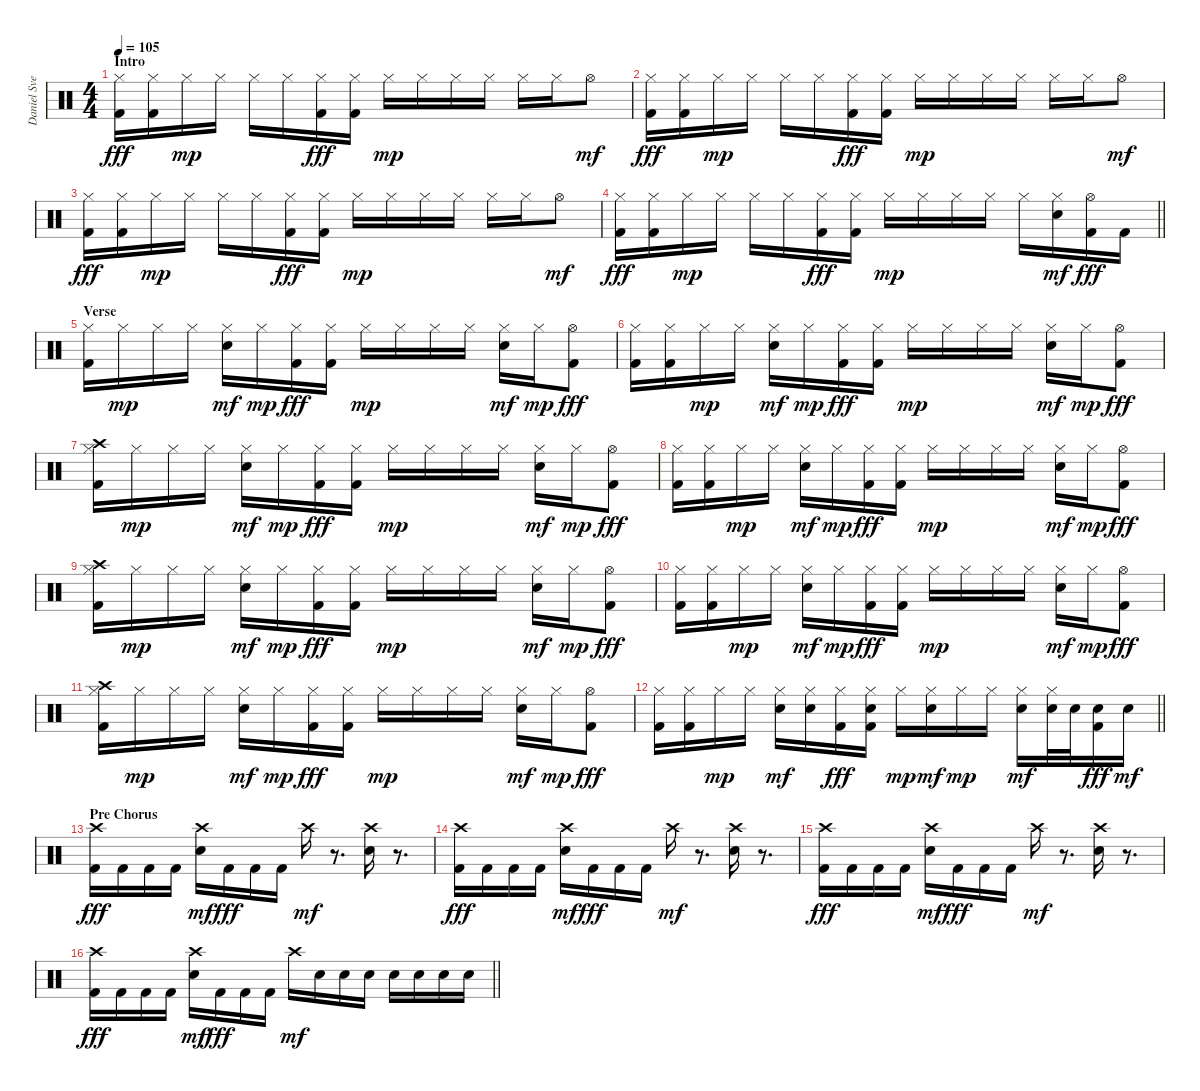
\track ("Daniel Svensson" "Daniel Sve") {instrument percussion}
\staff {score}
\articulation defaults
\ts (4 4)
\section ("" "Intro")
\tempo 105
\clef neutral
\ks c
("Hi-Hat (closed)" "Kick (hit) 2").16{dy fff} ("Hi-Hat (closed)" "Kick (hit) 2").16 "Hi-Hat (closed)".16{dy mp} "Hi-Hat (closed)".16 "Hi-Hat (closed)".16 "Hi-Hat (closed)".16 ("Hi-Hat (closed)" "Kick (hit) 2").16{dy fff} ("Hi-Hat (closed)" "Kick (hit) 2").16 "Hi-Hat (closed)".16{dy mp} "Hi-Hat (closed)".16 "Hi-Hat (closed)".16 "Hi-Hat (closed)".16 "Hi-Hat (closed)".16 "Hi-Hat (closed)".16 "Hi-Hat (open)".8{dy mf} |
("Hi-Hat (closed)" "Kick (hit) 2").16{dy fff} ("Hi-Hat (closed)" "Kick (hit) 2").16 "Hi-Hat (closed)".16{dy mp} "Hi-Hat (closed)".16 "Hi-Hat (closed)".16 "Hi-Hat (closed)".16 ("Hi-Hat (closed)" "Kick (hit) 2").16{dy fff} ("Hi-Hat (closed)" "Kick (hit) 2").16 "Hi-Hat (closed)".16{dy mp} "Hi-Hat (closed)".16 "Hi-Hat (closed)".16 "Hi-Hat (closed)".16 "Hi-Hat (closed)".16 "Hi-Hat (closed)".16 "Hi-Hat (open)".8{dy mf} |
("Hi-Hat (closed)" "Kick (hit) 2").16{dy fff} ("Hi-Hat (closed)" "Kick (hit) 2").16 "Hi-Hat (closed)".16{dy mp} "Hi-Hat (closed)".16 "Hi-Hat (closed)".16 "Hi-Hat (closed)".16 ("Hi-Hat (closed)" "Kick (hit) 2").16{dy fff} ("Hi-Hat (closed)" "Kick (hit) 2").16 "Hi-Hat (closed)".16{dy mp} "Hi-Hat (closed)".16 "Hi-Hat (closed)".16 "Hi-Hat (closed)".16 "Hi-Hat (closed)".16 "Hi-Hat (closed)".16 "Hi-Hat (open)".8{dy mf} |
\barLineRight lightlight
("Hi-Hat (closed)" "Kick (hit) 2").16{dy fff} ("Hi-Hat (closed)" "Kick (hit) 2").16 "Hi-Hat (closed)".16{dy mp} "Hi-Hat (closed)".16 "Hi-Hat (closed)".16 "Hi-Hat (closed)".16 ("Hi-Hat (closed)" "Kick (hit) 2").16{dy fff} ("Hi-Hat (closed)" "Kick (hit) 2").16 "Hi-Hat (closed)".16{dy mp} "Hi-Hat (closed)".16 "Hi-Hat (closed)".16 "Hi-Hat (closed)".16 "Hi-Hat (closed)".16 ("Hi-Hat (closed)" "Electric Snare (hit)").16{dy mf} ("Hi-Hat (open)" "Kick (hit) 2").16{dy fff} "Kick (hit) 2".16 |
\section ("" "Verse")
("Hi-Hat (closed)" "Kick (hit) 2").16 "Hi-Hat (closed)".16{dy mp} "Hi-Hat (closed)".16 "Hi-Hat (closed)".16 ("Hi-Hat (closed)" "Electric Snare (hit)").16{dy mf} "Hi-Hat (closed)".16{dy mp} ("Hi-Hat (closed)" "Kick (hit) 2").16{dy fff} ("Hi-Hat (closed)" "Kick (hit) 2").16 "Hi-Hat (closed)".16{dy mp} "Hi-Hat (closed)".16 "Hi-Hat (closed)".16 "Hi-Hat (closed)".16 ("Hi-Hat (closed)" "Electric Snare (hit)").16{dy mf} "Hi-Hat (closed)".16{dy mp} ("Hi-Hat (open)" "Kick (hit) 2").8{dy fff} |
("Hi-Hat (closed)" "Kick (hit) 2").16 ("Hi-Hat (closed)" "Kick (hit) 2").16 "Hi-Hat (closed)".16{dy mp} "Hi-Hat (closed)".16 ("Hi-Hat (closed)" "Electric Snare (hit)").16{dy mf} "Hi-Hat (closed)".16{dy mp} ("Hi-Hat (closed)" "Kick (hit) 2").16{dy fff} ("Hi-Hat (closed)" "Kick (hit) 2").16 "Hi-Hat (closed)".16{dy mp} "Hi-Hat (closed)".16 "Hi-Hat (closed)".16 "Hi-Hat (closed)".16 ("Hi-Hat (closed)" "Electric Snare (hit)").16{dy mf} "Hi-Hat (closed)".16{dy mp} ("Hi-Hat (open)" "Kick (hit) 2").8{dy fff} |
("Crash high (hit)" "Hi-Hat (closed)" "Kick (hit) 2").16 "Hi-Hat (closed)".16{dy mp} "Hi-Hat (closed)".16 "Hi-Hat (closed)".16 ("Hi-Hat (closed)" "Electric Snare (hit)").16{dy mf} "Hi-Hat (closed)".16{dy mp} ("Hi-Hat (closed)" "Kick (hit) 2").16{dy fff} ("Hi-Hat (closed)" "Kick (hit) 2").16 "Hi-Hat (closed)".16{dy mp} "Hi-Hat (closed)".16 "Hi-Hat (closed)".16 "Hi-Hat (closed)".16 ("Hi-Hat (closed)" "Electric Snare (hit)").16{dy mf} "Hi-Hat (closed)".16{dy mp} ("Hi-Hat (open)" "Kick (hit) 2").8{dy fff} |
("Hi-Hat (closed)" "Kick (hit) 2").16 ("Hi-Hat (closed)" "Kick (hit) 2").16 "Hi-Hat (closed)".16{dy mp} "Hi-Hat (closed)".16 ("Hi-Hat (closed)" "Electric Snare (hit)").16{dy mf} "Hi-Hat (closed)".16{dy mp} ("Hi-Hat (closed)" "Kick (hit) 2").16{dy fff} ("Hi-Hat (closed)" "Kick (hit) 2").16 "Hi-Hat (closed)".16{dy mp} "Hi-Hat (closed)".16 "Hi-Hat (closed)".16 "Hi-Hat (closed)".16 ("Hi-Hat (closed)" "Electric Snare (hit)").16{dy mf} "Hi-Hat (closed)".16{dy mp} ("Hi-Hat (open)" "Kick (hit) 2").8{dy fff} |
("Crash high (hit)" "Hi-Hat (closed)" "Kick (hit) 2").16 "Hi-Hat (closed)".16{dy mp} "Hi-Hat (closed)".16 "Hi-Hat (closed)".16 ("Hi-Hat (closed)" "Electric Snare (hit)").16{dy mf} "Hi-Hat (closed)".16{dy mp} ("Hi-Hat (closed)" "Kick (hit) 2").16{dy fff} ("Hi-Hat (closed)" "Kick (hit) 2").16 "Hi-Hat (closed)".16{dy mp} "Hi-Hat (closed)".16 "Hi-Hat (closed)".16 "Hi-Hat (closed)".16 ("Hi-Hat (closed)" "Electric Snare (hit)").16{dy mf} "Hi-Hat (closed)".16{dy mp} ("Hi-Hat (open)" "Kick (hit) 2").8{dy fff} |
("Hi-Hat (closed)" "Kick (hit) 2").16 ("Hi-Hat (closed)" "Kick (hit) 2").16 "Hi-Hat (closed)".16{dy mp} "Hi-Hat (closed)".16 ("Hi-Hat (closed)" "Electric Snare (hit)").16{dy mf} "Hi-Hat (closed)".16{dy mp} ("Hi-Hat (closed)" "Kick (hit) 2").16{dy fff} ("Hi-Hat (closed)" "Kick (hit) 2").16 "Hi-Hat (closed)".16{dy mp} "Hi-Hat (closed)".16 "Hi-Hat (closed)".16 "Hi-Hat (closed)".16 ("Hi-Hat (closed)" "Electric Snare (hit)").16{dy mf} "Hi-Hat (closed)".16{dy mp} ("Hi-Hat (open)" "Kick (hit) 2").8{dy fff} |
("Crash high (hit)" "Hi-Hat (closed)" "Kick (hit) 2").16 "Hi-Hat (closed)".16{dy mp} "Hi-Hat (closed)".16 "Hi-Hat (closed)".16 ("Hi-Hat (closed)" "Electric Snare (hit)").16{dy mf} "Hi-Hat (closed)".16{dy mp} ("Hi-Hat (closed)" "Kick (hit) 2").16{dy fff} ("Hi-Hat (closed)" "Kick (hit) 2").16 "Hi-Hat (closed)".16{dy mp} "Hi-Hat (closed)".16 "Hi-Hat (closed)".16 "Hi-Hat (closed)".16 ("Hi-Hat (closed)" "Electric Snare (hit)").16{dy mf} "Hi-Hat (closed)".16{dy mp} ("Hi-Hat (open)" "Kick (hit) 2").8{dy fff} |
\barLineRight lightlight
("Hi-Hat (closed)" "Kick (hit) 2").16 ("Hi-Hat (closed)" "Kick (hit) 2").16 "Hi-Hat (closed)".16{dy mp} "Hi-Hat (closed)".16 ("Hi-Hat (closed)" "Electric Snare (hit)").16{dy mf} ("Hi-Hat (closed)" "Electric Snare (hit)").16 ("Hi-Hat (closed)" "Kick (hit) 2").16{dy fff} ("Hi-Hat (closed)" "Electric Snare (hit)" "Kick (hit) 2").16 "Hi-Hat (closed)".16{dy mp} ("Hi-Hat (closed)" "Electric Snare (hit)").16{dy mf} "Hi-Hat (closed)".16{dy mp} "Hi-Hat (closed)".16 ("Hi-Hat (closed)" "Electric Snare (hit)").16{dy mf} ("Hi-Hat (closed)" "Electric Snare (hit)").32 "Electric Snare (hit)".32 ("Electric Snare (hit)" "Kick (hit) 2").16{dy fff} "Electric Snare (hit)".16{dy mf} |
\section ("" "Pre Chorus")
("Crash high (hit)" "Kick (hit) 2").16{dy fff} "Kick (hit) 2".16 "Kick (hit) 2".16 "Kick (hit) 2".16 ("Crash high (hit)" "Electric Snare (hit)").16{dy mf} "Kick (hit) 2".16{dy fff} "Kick (hit) 2".16 "Kick (hit) 2".16 "Crash high (hit)".16{dy mf} r.8{d} ("Crash high (hit)" "Electric Snare (hit)").16 r.8{d} |
("Crash high (hit)" "Kick (hit) 2").16{dy fff} "Kick (hit) 2".16 "Kick (hit) 2".16 "Kick (hit) 2".16 ("Crash high (hit)" "Electric Snare (hit)").16{dy mf} "Kick (hit) 2".16{dy fff} "Kick (hit) 2".16 "Kick (hit) 2".16 "Crash high (hit)".16{dy mf} r.8{d} ("Crash high (hit)" "Electric Snare (hit)").16 r.8{d} |
("Crash high (hit)" "Kick (hit) 2").16{dy fff} "Kick (hit) 2".16 "Kick (hit) 2".16 "Kick (hit) 2".16 ("Crash high (hit)" "Electric Snare (hit)").16{dy mf} "Kick (hit) 2".16{dy fff} "Kick (hit) 2".16 "Kick (hit) 2".16 "Crash high (hit)".16{dy mf} r.8{d} ("Crash high (hit)" "Electric Snare (hit)").16 r.8{d} |
\barLineRight lightlight
("Crash high (hit)" "Kick (hit) 2").16{dy fff} "Kick (hit) 2".16 "Kick (hit) 2".16 "Kick (hit) 2".16 ("Crash high (hit)" "Electric Snare (hit)").16{dy mf} "Kick (hit) 2".16{dy fff} "Kick (hit) 2".16 "Kick (hit) 2".16 "Crash high (hit)".16{dy mf} "Electric Snare (hit)".16 "Electric Snare (hit)".16 "Electric Snare (hit)".16 "Electric Snare (hit)".16 "Electric Snare (hit)".16 "Electric Snare (hit)".16 "Electric Snare (hit)".16
